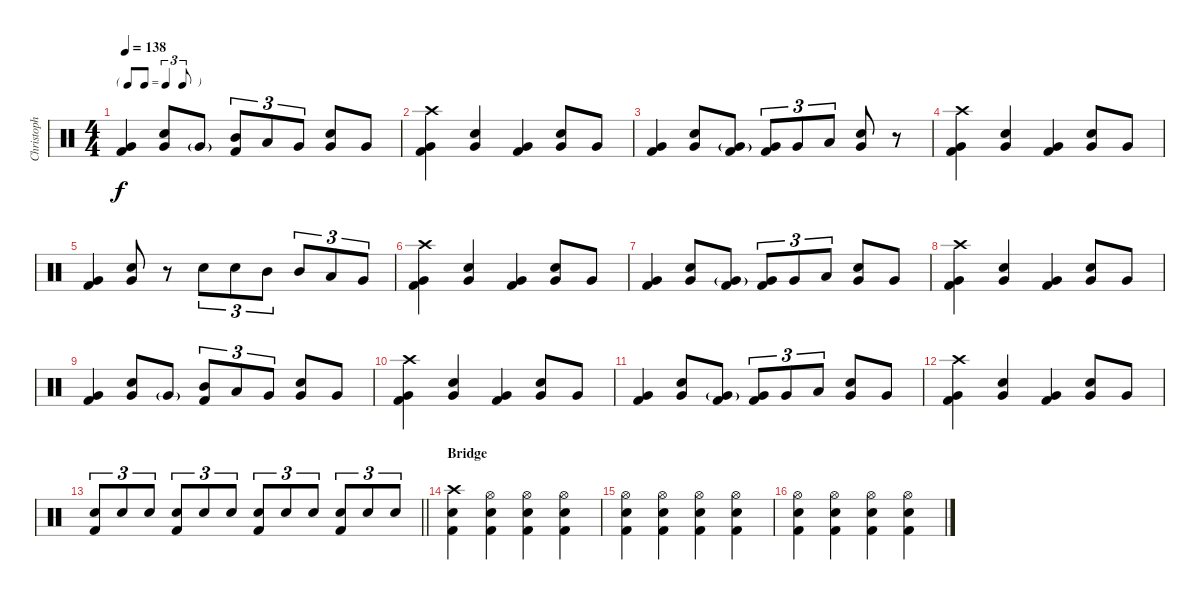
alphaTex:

\track ("Christoph Schneider" "Christoph ") {instrument percussion}
\staff {score}
\articulation defaults
\ts (4 4)
\tf triplet8th
\tempo 138
\clef neutral
\ks c
("Very Low Tom (hit)" "Kick (hit) 2").4{dy f} ("Very Low Tom (hit)" "Electric Snare (hit)").8 "Very Low Tom (hit)"{g}.8 ("Mid Tom (hit)" "Kick (hit) 2").8{tu (3 2)} "Low Tom (hit)".8{tu (3 2)} "Very Low Tom (hit)".8{tu (3 2)} ("Very Low Tom (hit)" "Electric Snare (hit)").8 "Very Low Tom (hit)".8 |
("Crash high (hit)" "Very Low Tom (hit)" "Kick (hit) 2").4 ("Very Low Tom (hit)" "Electric Snare (hit)").4 ("Very Low Tom (hit)" "Kick (hit) 2").4 ("Very Low Tom (hit)" "Electric Snare (hit)").8 "Very Low Tom (hit)".8 |
("Very Low Tom (hit)" "Kick (hit) 2").4 ("Very Low Tom (hit)" "Electric Snare (hit)").8 ("Very Low Tom (hit)"{g} "Kick (hit) 2").8 ("Very Low Tom (hit)" "Kick (hit) 2").8{tu (3 2)} "Very Low Tom (hit)".8{tu (3 2)} "Low Tom (hit)".8{tu (3 2)} ("Very Low Tom (hit)" "Electric Snare (hit)").8 r.8 |
("Crash high (hit)" "Very Low Tom (hit)" "Kick (hit) 2").4 ("Very Low Tom (hit)" "Electric Snare (hit)").4 ("Very Low Tom (hit)" "Kick (hit) 2").4 ("Very Low Tom (hit)" "Electric Snare (hit)").8 "Very Low Tom (hit)".8 |
("Very Low Tom (hit)" "Kick (hit) 2").4 ("Very Low Tom (hit)" "Electric Snare (hit)").8 r.8 "Electric Snare (hit)".8{tu (3 2)} "Electric Snare (hit)".8{tu (3 2)} "Mid Tom (hit)".8{tu (3 2)} "Mid Tom (hit)".8{tu (3 2)} "Low Tom (hit)".8{tu (3 2)} "Very Low Tom (hit)".8{tu (3 2)} |
("Crash high (hit)" "Very Low Tom (hit)" "Kick (hit) 2").4 ("Very Low Tom (hit)" "Electric Snare (hit)").4 ("Very Low Tom (hit)" "Kick (hit) 2").4 ("Very Low Tom (hit)" "Electric Snare (hit)").8 "Very Low Tom (hit)".8 |
("Very Low Tom (hit)" "Kick (hit) 2").4 ("Very Low Tom (hit)" "Electric Snare (hit)").8 ("Very Low Tom (hit)"{g} "Kick (hit) 2").8 ("Very Low Tom (hit)" "Kick (hit) 2").8{tu (3 2)} "Very Low Tom (hit)".8{tu (3 2)} "Low Tom (hit)".8{tu (3 2)} ("Very Low Tom (hit)" "Electric Snare (hit)").8 "Very Low Tom (hit)".8 |
("Crash high (hit)" "Very Low Tom (hit)" "Kick (hit) 2").4 ("Very Low Tom (hit)" "Electric Snare (hit)").4 ("Very Low Tom (hit)" "Kick (hit) 2").4 ("Very Low Tom (hit)" "Electric Snare (hit)").8 "Very Low Tom (hit)".8 |
("Very Low Tom (hit)" "Kick (hit) 2").4 ("Very Low Tom (hit)" "Electric Snare (hit)").8 "Very Low Tom (hit)"{g}.8 ("Mid Tom (hit)" "Kick (hit) 2").8{tu (3 2)} "Low Tom (hit)".8{tu (3 2)} "Very Low Tom (hit)".8{tu (3 2)} ("Very Low Tom (hit)" "Electric Snare (hit)").8 "Very Low Tom (hit)".8 |
("Crash high (hit)" "Very Low Tom (hit)" "Kick (hit) 2").4 ("Very Low Tom (hit)" "Electric Snare (hit)").4 ("Very Low Tom (hit)" "Kick (hit) 2").4 ("Very Low Tom (hit)" "Electric Snare (hit)").8 "Very Low Tom (hit)".8 |
("Very Low Tom (hit)" "Kick (hit) 2").4 ("Very Low Tom (hit)" "Electric Snare (hit)").8 ("Very Low Tom (hit)"{g} "Kick (hit) 2").8 ("Very Low Tom (hit)" "Kick (hit) 2").8{tu (3 2)} "Very Low Tom (hit)".8{tu (3 2)} "Low Tom (hit)".8{tu (3 2)} ("Very Low Tom (hit)" "Electric Snare (hit)").8 "Very Low Tom (hit)".8 |
("Crash high (hit)" "Very Low Tom (hit)" "Kick (hit) 2").4 ("Very Low Tom (hit)" "Electric Snare (hit)").4 ("Very Low Tom (hit)" "Kick (hit) 2").4 ("Very Low Tom (hit)" "Electric Snare (hit)").8 "Very Low Tom (hit)".8 |
\barLineRight lightlight
("Electric Snare (hit)" "Kick (hit) 2").8{tu (3 2)} "Electric Snare (hit)".8{tu (3 2)} "Electric Snare (hit)".8{tu (3 2)} ("Electric Snare (hit)" "Kick (hit) 2").8{tu (3 2)} "Electric Snare (hit)".8{tu (3 2)} "Electric Snare (hit)".8{tu (3 2)} ("Electric Snare (hit)" "Kick (hit) 2").8{tu (3 2)} "Electric Snare (hit)".8{tu (3 2)} "Electric Snare (hit)".8{tu (3 2)} ("Electric Snare (hit)" "Kick (hit) 2").8{tu (3 2)} "Electric Snare (hit)".8{tu (3 2)} "Electric Snare (hit)".8{tu (3 2)} |
\section ("" "Bridge")
("Crash high (hit)" "Electric Snare (hit)" "Kick (hit) 2").4 ("Hi-Hat (open)" "Electric Snare (hit)" "Kick (hit) 2").4 ("Hi-Hat (open)" "Electric Snare (hit)" "Kick (hit) 2").4 ("Hi-Hat (open)" "Electric Snare (hit)" "Kick (hit) 2").4 |
("Hi-Hat (open)" "Electric Snare (hit)" "Kick (hit) 2").4 ("Hi-Hat (open)" "Electric Snare (hit)" "Kick (hit) 2").4 ("Hi-Hat (open)" "Electric Snare (hit)" "Kick (hit) 2").4 ("Hi-Hat (open)" "Electric Snare (hit)" "Kick (hit) 2").4 |
("Hi-Hat (open)" "Electric Snare (hit)" "Kick (hit) 2").4 ("Hi-Hat (open)" "Electric Snare (hit)" "Kick (hit) 2").4 ("Hi-Hat (open)" "Electric Snare (hit)" "Kick (hit) 2").4 ("Hi-Hat (open)" "Electric Snare (hit)" "Kick (hit) 2").4
